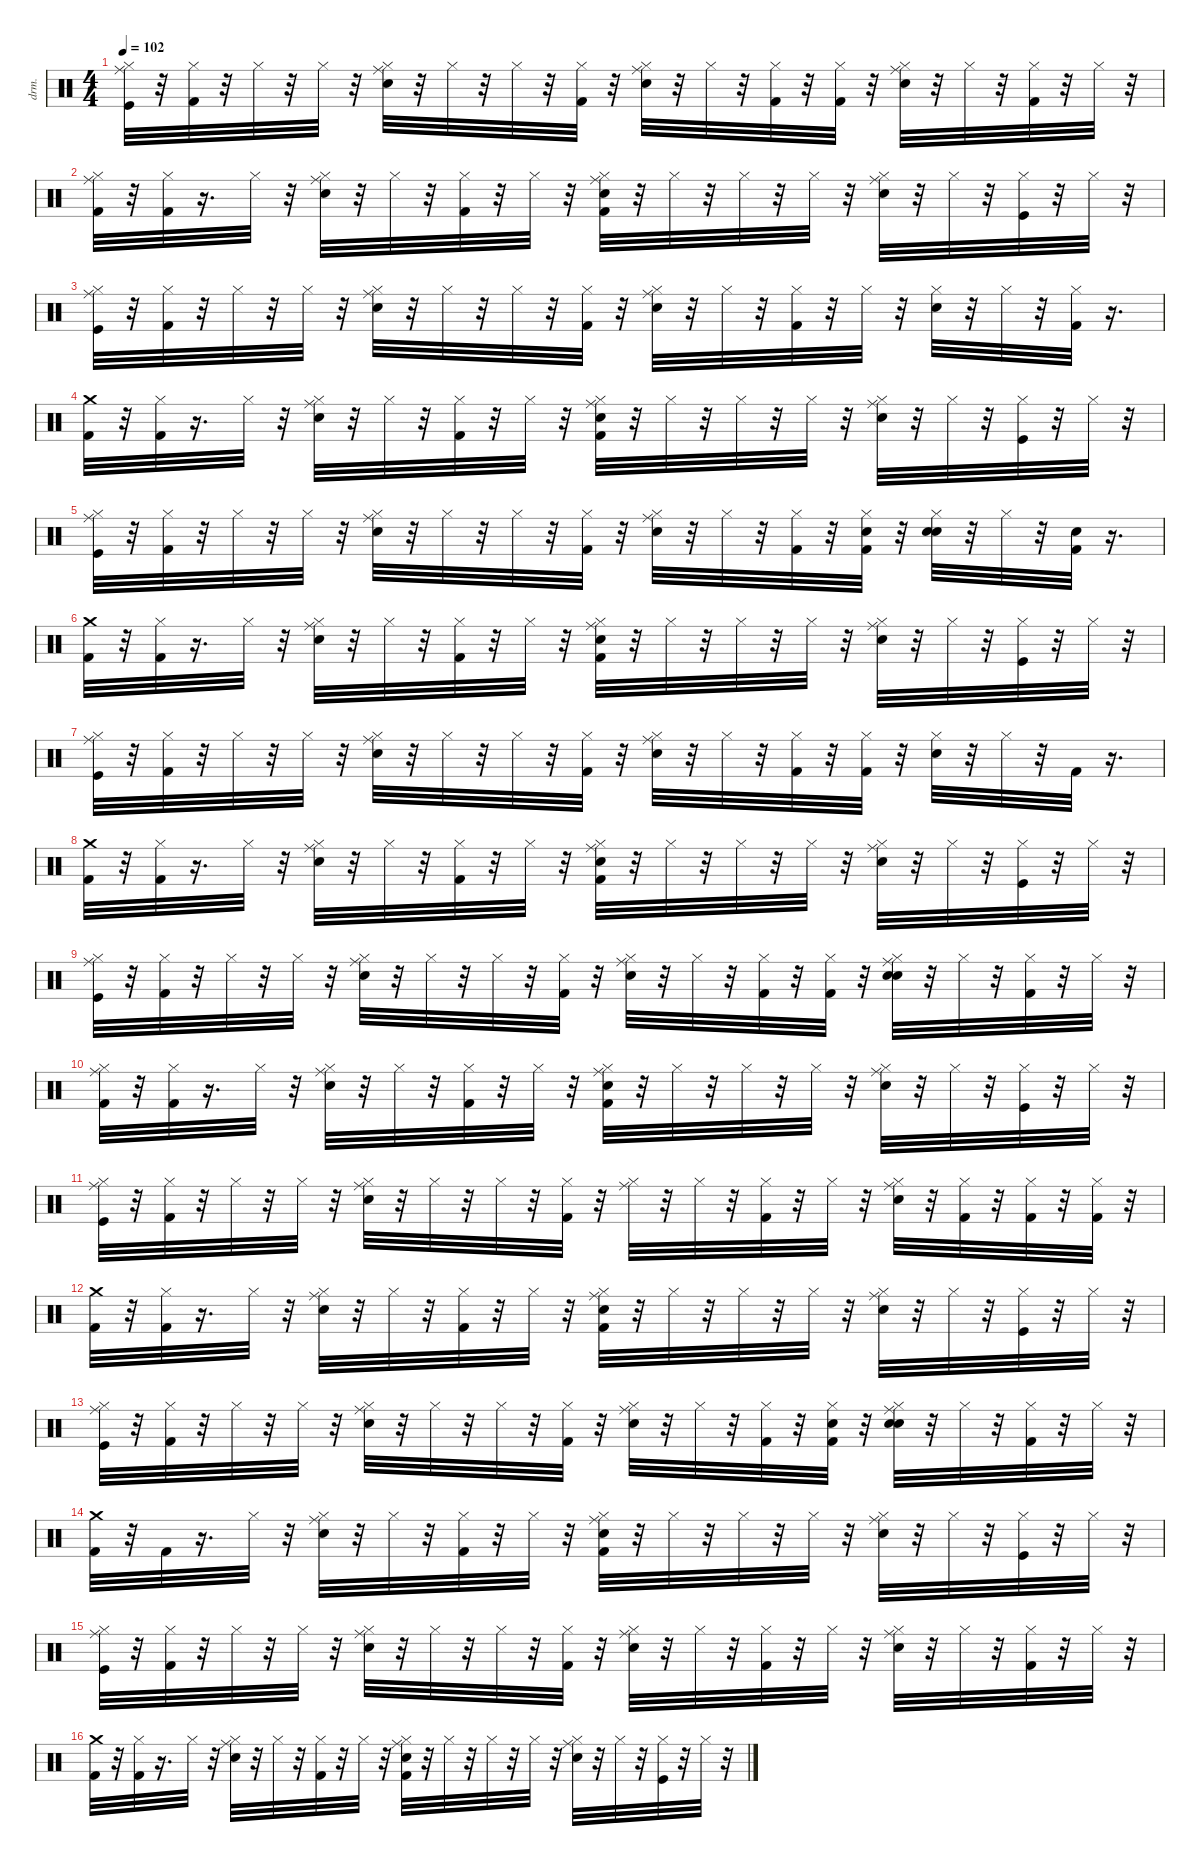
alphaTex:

\defaultSystemsLayout 4
\hideDynamics
\bracketExtendMode nobrackets
\otherSystemsTrackNameOrientation horizontal
\track ("Nick Mason / Gary Wallis" "drm.") {instrument percussion}
\staff {score}
\articulation defaults
\ts (4 4)
\tempo 102
\clef neutral
\ks c
("Kick (hit)" "Hi-Hat (closed)" "Ride (middle)").32{dy fff beam Down} r.32{beam Down} ("Hi-Hat (closed)" "Kick (hit) 2").32{dy pp beam Down} r.32{beam Down} "Hi-Hat (closed)".32{dy ppp beam Down} r.32{beam Down} "Hi-Hat (closed)".32{dy p beam Down} r.32{beam Down} ("Snare (hit) 2" "Hi-Hat (closed)" "Ride (middle)").32{beam Down} r.32{beam Down} "Hi-Hat (closed)".32{dy ppp beam Down} r.32{beam Down} "Hi-Hat (closed)".32{dy mp beam Down} r.32{beam Down} ("Hi-Hat (closed)" "Kick (hit) 2").32{dy ppp beam Down} r.32{beam Down} ("Snare (hit) 2" "Hi-Hat (closed)" "Ride (middle)").32{dy ff beam Down} r.32{beam Down} "Hi-Hat (closed)".32{dy pp beam Down} r.32{beam Down} ("Hi-Hat (closed)" "Kick (hit) 2").32{dy ppp beam Down} r.32{beam Down} ("Hi-Hat (closed)" "Kick (hit) 2").32{dy p beam Down} r.32{beam Down} ("Snare (hit) 2" "Hi-Hat (closed)" "Ride (middle)").32{beam Down} r.32{beam Down} "Hi-Hat (closed)".32{dy ppp beam Down} r.32{beam Down} ("Kick (hit) 2" "Hi-Hat (closed)").32{dy f beam Down} r.32{beam Down} "Hi-Hat (closed)".32{dy p beam Down} r.32{beam Down} |
("Kick (hit) 2" "Hi-Hat (closed)" "Ride (middle)").32{dy ff beam Down} r.32{beam Down} ("Hi-Hat (closed)" "Kick (hit) 2").32{dy mp beam Down} r.16{d beam Down} "Hi-Hat (closed)".32{dy pp beam Down} r.32{beam Down} ("Snare (hit) 2" "Hi-Hat (closed)" "Ride (middle)").32{dy p beam Down} r.32{beam Down} "Hi-Hat (closed)".32{dy pp beam Down} r.32{beam Down} ("Kick (hit) 2" "Hi-Hat (closed)").32{dy ff beam Down} r.32{beam Down} "Hi-Hat (closed)".32{dy ppp beam Down} r.32{beam Down} ("Kick (hit) 2" "Snare (hit) 2" "Hi-Hat (closed)" "Ride (middle)").32{dy f beam Down} r.32{beam Down} "Hi-Hat (closed)".32{dy ppp beam Down} r.32{beam Down} "Hi-Hat (closed)".32{dy pp beam Down} r.32{beam Down} "Hi-Hat (closed)".32{beam Down} r.32{beam Down} ("Snare (hit) 2" "Hi-Hat (closed)" "Ride (middle)").32{dy p beam Down} r.32{beam Down} "Hi-Hat (closed)".32{dy ppp beam Down} r.32{beam Down} ("Kick (hit)" "Hi-Hat (closed)").32{dy f beam Down} r.32{beam Down} "Hi-Hat (closed)".32{dy mp beam Down} r.32{beam Down} |
("Kick (hit)" "Hi-Hat (closed)" "Ride (middle)").32{dy fff beam Down} r.32{beam Down} ("Hi-Hat (closed)" "Kick (hit) 2").32{dy pp beam Down} r.32{beam Down} "Hi-Hat (closed)".32{dy ppp beam Down} r.32{beam Down} "Hi-Hat (closed)".32{dy p beam Down} r.32{beam Down} ("Snare (hit) 2" "Hi-Hat (closed)" "Ride (middle)").32{beam Down} r.32{beam Down} "Hi-Hat (closed)".32{dy ppp beam Down} r.32{beam Down} "Hi-Hat (closed)".32{dy mp beam Down} r.32{beam Down} ("Hi-Hat (closed)" "Kick (hit) 2").32{dy ppp beam Down} r.32{beam Down} ("Snare (hit) 2" "Hi-Hat (closed)" "Ride (middle)").32{dy ff beam Down} r.32{beam Down} "Hi-Hat (closed)".32{dy pp beam Down} r.32{beam Down} ("Hi-Hat (closed)" "Kick (hit) 2").32{dy ppp beam Down} r.32{beam Down} "Hi-Hat (closed)".32{dy p beam Down} r.32{beam Down} ("Snare (hit) 2" "Hi-Hat (closed)").32{beam Down} r.32{beam Down} "Hi-Hat (closed)".32{dy ppp beam Down} r.32{beam Down} ("Kick (hit) 2" "Hi-Hat (closed)").32{dy f beam Down} r.16{d beam Down} |
("Kick (hit) 2" "Crash medium (hit)").32{dy ff beam Down} r.32{beam Down} ("Hi-Hat (closed)" "Kick (hit) 2").32{dy mp beam Down} r.16{d beam Down} "Hi-Hat (closed)".32{dy pp beam Down} r.32{beam Down} ("Snare (hit) 2" "Hi-Hat (closed)" "Ride (middle)").32{dy p beam Down} r.32{beam Down} "Hi-Hat (closed)".32{dy pp beam Down} r.32{beam Down} ("Kick (hit) 2" "Hi-Hat (closed)").32{dy f beam Down} r.32{beam Down} "Hi-Hat (closed)".32{dy ppp beam Down} r.32{beam Down} ("Kick (hit) 2" "Snare (hit) 2" "Hi-Hat (closed)" "Ride (middle)").32{dy f beam Down} r.32{beam Down} "Hi-Hat (closed)".32{dy ppp beam Down} r.32{beam Down} "Hi-Hat (closed)".32{dy pp beam Down} r.32{beam Down} "Hi-Hat (closed)".32{beam Down} r.32{beam Down} ("Snare (hit) 2" "Hi-Hat (closed)" "Ride (middle)").32{dy p beam Down} r.32{beam Down} "Hi-Hat (closed)".32{dy ppp beam Down} r.32{beam Down} ("Kick (hit)" "Hi-Hat (closed)").32{dy f beam Down} r.32{beam Down} "Hi-Hat (closed)".32{dy mp beam Down} r.32{beam Down} |
("Kick (hit)" "Hi-Hat (closed)" "Ride (middle)").32{dy fff beam Down} r.32{beam Down} ("Hi-Hat (closed)" "Kick (hit) 2").32{dy pp beam Down} r.32{beam Down} "Hi-Hat (closed)".32{dy ppp beam Down} r.32{beam Down} "Hi-Hat (closed)".32{dy p beam Down} r.32{beam Down} ("Snare (hit) 2" "Hi-Hat (closed)" "Ride (middle)").32{beam Down} r.32{beam Down} "Hi-Hat (closed)".32{dy ppp beam Down} r.32{beam Down} "Hi-Hat (closed)".32{dy mp beam Down} r.32{beam Down} ("Hi-Hat (closed)" "Kick (hit) 2").32{dy ppp beam Down} r.32{beam Down} ("Snare (hit) 2" "Hi-Hat (closed)" "Ride (middle)").32{dy ff beam Down} r.32{beam Down} "Hi-Hat (closed)".32{dy pp beam Down} r.32{beam Down} ("Hi-Hat (closed)" "Kick (hit) 2").32{dy ppp beam Down} r.32{beam Down} ("Snare (hit) 2" "Hi-Hat (closed)" "Kick (hit) 2").32{dy mp beam Down} r.32{beam Down} ("Snare (hit) 2" "Snare (hit) 2" "Hi-Hat (closed)").32{dy p beam Down} r.32{beam Down} "Hi-Hat (closed)".32{dy ppp beam Down} r.32{beam Down} ("Kick (hit) 2" "Snare (hit) 2").32{dy f beam Down} r.16{d beam Down} |
("Kick (hit) 2" "Crash medium (hit)").32{dy ff beam Down} r.32{beam Down} ("Hi-Hat (closed)" "Kick (hit) 2").32{dy mp beam Down} r.16{d beam Down} "Hi-Hat (closed)".32{dy pp beam Down} r.32{beam Down} ("Snare (hit) 2" "Hi-Hat (closed)" "Ride (middle)").32{dy p beam Down} r.32{beam Down} "Hi-Hat (closed)".32{dy pp beam Down} r.32{beam Down} ("Kick (hit) 2" "Hi-Hat (closed)").32{dy ff beam Down} r.32{beam Down} "Hi-Hat (closed)".32{dy ppp beam Down} r.32{beam Down} ("Kick (hit) 2" "Snare (hit) 2" "Hi-Hat (closed)" "Ride (middle)").32{dy f beam Down} r.32{beam Down} "Hi-Hat (closed)".32{dy ppp beam Down} r.32{beam Down} "Hi-Hat (closed)".32{dy pp beam Down} r.32{beam Down} "Hi-Hat (closed)".32{beam Down} r.32{beam Down} ("Snare (hit) 2" "Hi-Hat (closed)" "Ride (middle)").32{dy p beam Down} r.32{beam Down} "Hi-Hat (closed)".32{dy ppp beam Down} r.32{beam Down} ("Kick (hit)" "Hi-Hat (closed)").32{dy f beam Down} r.32{beam Down} "Hi-Hat (closed)".32{dy mp beam Down} r.32{beam Down} |
("Kick (hit)" "Hi-Hat (closed)" "Ride (middle)").32{dy fff beam Down} r.32{beam Down} ("Hi-Hat (closed)" "Kick (hit) 2").32{dy pp beam Down} r.32{beam Down} "Hi-Hat (closed)".32{dy ppp beam Down} r.32{beam Down} "Hi-Hat (closed)".32{dy p beam Down} r.32{beam Down} ("Snare (hit) 2" "Hi-Hat (closed)" "Ride (middle)").32{beam Down} r.32{beam Down} "Hi-Hat (closed)".32{dy ppp beam Down} r.32{beam Down} "Hi-Hat (closed)".32{dy mp beam Down} r.32{beam Down} ("Hi-Hat (closed)" "Kick (hit) 2").32{dy ppp beam Down} r.32{beam Down} ("Snare (hit) 2" "Hi-Hat (closed)" "Ride (middle)").32{dy ff beam Down} r.32{beam Down} "Hi-Hat (closed)".32{dy pp beam Down} r.32{beam Down} ("Hi-Hat (closed)" "Kick (hit) 2").32{dy ppp beam Down} r.32{beam Down} ("Hi-Hat (closed)" "Kick (hit) 2").32{dy p beam Down} r.32{beam Down} ("Snare (hit) 2" "Hi-Hat (closed)").32{beam Down} r.32{beam Down} "Hi-Hat (closed)".32{dy ppp beam Down} r.32{beam Down} "Kick (hit) 2".32{dy f beam Down} r.16{d beam Down} |
("Kick (hit) 2" "Crash medium (hit)").32{dy ff beam Down} r.32{beam Down} ("Hi-Hat (closed)" "Kick (hit) 2").32{dy mp beam Down} r.16{d beam Down} "Hi-Hat (closed)".32{dy pp beam Down} r.32{beam Down} ("Snare (hit) 2" "Hi-Hat (closed)" "Ride (middle)").32{dy p beam Down} r.32{beam Down} "Hi-Hat (closed)".32{dy pp beam Down} r.32{beam Down} ("Kick (hit) 2" "Hi-Hat (closed)").32{dy f beam Down} r.32{beam Down} "Hi-Hat (closed)".32{dy ppp beam Down} r.32{beam Down} ("Kick (hit) 2" "Snare (hit) 2" "Hi-Hat (closed)" "Ride (middle)").32{dy f beam Down} r.32{beam Down} "Hi-Hat (closed)".32{dy ppp beam Down} r.32{beam Down} "Hi-Hat (closed)".32{dy pp beam Down} r.32{beam Down} "Hi-Hat (closed)".32{beam Down} r.32{beam Down} ("Snare (hit) 2" "Hi-Hat (closed)" "Ride (middle)").32{dy p beam Down} r.32{beam Down} "Hi-Hat (closed)".32{dy ppp beam Down} r.32{beam Down} ("Kick (hit)" "Hi-Hat (closed)").32{dy f beam Down} r.32{beam Down} "Hi-Hat (closed)".32{dy mp beam Down} r.32{beam Down} |
("Kick (hit)" "Hi-Hat (closed)" "Ride (middle)").32{dy fff beam Down} r.32{beam Down} ("Hi-Hat (closed)" "Kick (hit) 2").32{dy pp beam Down} r.32{beam Down} "Hi-Hat (closed)".32{dy ppp beam Down} r.32{beam Down} "Hi-Hat (closed)".32{dy p beam Down} r.32{beam Down} ("Snare (hit) 2" "Hi-Hat (closed)" "Ride (middle)").32{beam Down} r.32{beam Down} "Hi-Hat (closed)".32{dy ppp beam Down} r.32{beam Down} "Hi-Hat (closed)".32{dy mp beam Down} r.32{beam Down} ("Hi-Hat (closed)" "Kick (hit) 2").32{dy ppp beam Down} r.32{beam Down} ("Snare (hit) 2" "Hi-Hat (closed)" "Ride (middle)").32{dy ff beam Down} r.32{beam Down} "Hi-Hat (closed)".32{dy pp beam Down} r.32{beam Down} ("Hi-Hat (closed)" "Kick (hit) 2").32{dy ppp beam Down} r.32{beam Down} ("Hi-Hat (closed)" "Kick (hit) 2").32{dy p beam Down} r.32{beam Down} ("Snare (hit) 2" "Snare (hit) 2" "Hi-Hat (closed)" "Ride (middle)").32{beam Down} r.32{beam Down} "Hi-Hat (closed)".32{dy ppp beam Down} r.32{beam Down} ("Kick (hit) 2" "Hi-Hat (closed)").32{dy f beam Down} r.32{beam Down} "Hi-Hat (closed)".32{dy p beam Down} r.32{beam Down} |
("Kick (hit) 2" "Hi-Hat (closed)" "Ride (middle)").32{dy ff beam Down} r.32{beam Down} ("Hi-Hat (closed)" "Kick (hit) 2").32{dy mp beam Down} r.16{d beam Down} "Hi-Hat (closed)".32{dy pp beam Down} r.32{beam Down} ("Snare (hit) 2" "Hi-Hat (closed)" "Ride (middle)").32{dy p beam Down} r.32{beam Down} "Hi-Hat (closed)".32{dy pp beam Down} r.32{beam Down} ("Kick (hit) 2" "Hi-Hat (closed)").32{dy ff beam Down} r.32{beam Down} "Hi-Hat (closed)".32{dy ppp beam Down} r.32{beam Down} ("Kick (hit) 2" "Snare (hit) 2" "Hi-Hat (closed)" "Ride (middle)").32{dy f beam Down} r.32{beam Down} "Hi-Hat (closed)".32{dy ppp beam Down} r.32{beam Down} "Hi-Hat (closed)".32{dy pp beam Down} r.32{beam Down} "Hi-Hat (closed)".32{beam Down} r.32{beam Down} ("Snare (hit) 2" "Hi-Hat (closed)" "Ride (middle)").32{dy p beam Down} r.32{beam Down} "Hi-Hat (closed)".32{dy ppp beam Down} r.32{beam Down} ("Kick (hit)" "Hi-Hat (closed)").32{dy f beam Down} r.32{beam Down} "Hi-Hat (closed)".32{dy mp beam Down} r.32{beam Down} |
("Kick (hit)" "Hi-Hat (closed)" "Ride (middle)").32{dy fff beam Down} r.32{beam Down} ("Hi-Hat (closed)" "Kick (hit) 2").32{dy pp beam Down} r.32{beam Down} "Hi-Hat (closed)".32{dy ppp beam Down} r.32{beam Down} "Hi-Hat (closed)".32{dy p beam Down} r.32{beam Down} ("Snare (hit) 2" "Hi-Hat (closed)" "Ride (middle)").32{beam Down} r.32{beam Down} "Hi-Hat (closed)".32{dy ppp beam Down} r.32{beam Down} "Hi-Hat (closed)".32{dy mp beam Down} r.32{beam Down} ("Hi-Hat (closed)" "Kick (hit) 2").32{dy ppp beam Down} r.32{beam Down} ("Hi-Hat (closed)" "Ride (middle)").32{dy mf beam Down} r.32{beam Down} "Hi-Hat (closed)".32{dy pp beam Down} r.32{beam Down} ("Hi-Hat (closed)" "Kick (hit) 2").32{dy ppp beam Down} r.32{beam Down} "Hi-Hat (closed)".32{dy p beam Down} r.32{beam Down} ("Snare (hit) 2" "Hi-Hat (closed)" "Ride (middle)").32{beam Down} r.32{beam Down} ("Kick (hit) 2" "Hi-Hat (closed)").32{dy f beam Down} r.32{beam Down} ("Kick (hit) 2" "Hi-Hat (closed)").32{beam Down} r.32{beam Down} ("Kick (hit) 2" "Hi-Hat (closed)").32{dy ff beam Down} r.32{beam Down} |
("Kick (hit) 2" "Crash medium (hit)").32{beam Down} r.32{beam Down} ("Hi-Hat (closed)" "Kick (hit) 2").32{dy mp beam Down} r.16{d beam Down} "Hi-Hat (closed)".32{dy pp beam Down} r.32{beam Down} ("Snare (hit) 2" "Hi-Hat (closed)" "Ride (middle)").32{dy p beam Down} r.32{beam Down} "Hi-Hat (closed)".32{dy pp beam Down} r.32{beam Down} ("Kick (hit) 2" "Hi-Hat (closed)").32{dy f beam Down} r.32{beam Down} "Hi-Hat (closed)".32{dy ppp beam Down} r.32{beam Down} ("Kick (hit) 2" "Snare (hit) 2" "Hi-Hat (closed)" "Ride (middle)").32{dy f beam Down} r.32{beam Down} "Hi-Hat (closed)".32{dy ppp beam Down} r.32{beam Down} "Hi-Hat (closed)".32{dy pp beam Down} r.32{beam Down} "Hi-Hat (closed)".32{beam Down} r.32{beam Down} ("Snare (hit) 2" "Hi-Hat (closed)" "Ride (middle)").32{dy p beam Down} r.32{beam Down} "Hi-Hat (closed)".32{dy ppp beam Down} r.32{beam Down} ("Kick (hit)" "Hi-Hat (closed)").32{dy f beam Down} r.32{beam Down} "Hi-Hat (closed)".32{dy mp beam Down} r.32{beam Down} |
("Kick (hit)" "Hi-Hat (closed)" "Ride (middle)").32{dy fff beam Down} r.32{beam Down} ("Hi-Hat (closed)" "Kick (hit) 2").32{dy pp beam Down} r.32{beam Down} "Hi-Hat (closed)".32{dy ppp beam Down} r.32{beam Down} "Hi-Hat (closed)".32{dy p beam Down} r.32{beam Down} ("Snare (hit) 2" "Hi-Hat (closed)" "Ride (middle)").32{beam Down} r.32{beam Down} "Hi-Hat (closed)".32{dy ppp beam Down} r.32{beam Down} "Hi-Hat (closed)".32{dy mp beam Down} r.32{beam Down} ("Hi-Hat (closed)" "Kick (hit) 2").32{dy ppp beam Down} r.32{beam Down} ("Snare (hit) 2" "Hi-Hat (closed)" "Ride (middle)").32{dy ff beam Down} r.32{beam Down} "Hi-Hat (closed)".32{dy pp beam Down} r.32{beam Down} ("Hi-Hat (closed)" "Kick (hit) 2").32{dy ppp beam Down} r.32{beam Down} ("Snare (hit) 2" "Hi-Hat (closed)" "Kick (hit) 2").32{dy mp beam Down} r.32{beam Down} ("Snare (hit) 2" "Snare (hit) 2" "Hi-Hat (closed)" "Ride (middle)").32{dy p beam Down} r.32{beam Down} "Hi-Hat (closed)".32{dy ppp beam Down} r.32{beam Down} ("Kick (hit) 2" "Hi-Hat (closed)").32{dy f beam Down} r.32{beam Down} "Hi-Hat (closed)".32{dy p beam Down} r.32{beam Down} |
("Kick (hit) 2" "Crash medium (hit)").32{dy ff beam Down} r.32{beam Down} "Kick (hit) 2".32{dy mf beam Down} r.16{d beam Down} "Hi-Hat (closed)".32{dy pp beam Down} r.32{beam Down} ("Snare (hit) 2" "Hi-Hat (closed)" "Ride (middle)").32{dy p beam Down} r.32{beam Down} "Hi-Hat (closed)".32{dy pp beam Down} r.32{beam Down} ("Kick (hit) 2" "Hi-Hat (closed)").32{dy ff beam Down} r.32{beam Down} "Hi-Hat (closed)".32{dy ppp beam Down} r.32{beam Down} ("Kick (hit) 2" "Snare (hit) 2" "Hi-Hat (closed)" "Ride (middle)").32{dy f beam Down} r.32{beam Down} "Hi-Hat (closed)".32{dy ppp beam Down} r.32{beam Down} "Hi-Hat (closed)".32{dy pp beam Down} r.32{beam Down} "Hi-Hat (closed)".32{beam Down} r.32{beam Down} ("Snare (hit) 2" "Hi-Hat (closed)" "Ride (middle)").32{dy p beam Down} r.32{beam Down} "Hi-Hat (closed)".32{dy ppp beam Down} r.32{beam Down} ("Kick (hit)" "Hi-Hat (closed)").32{dy f beam Down} r.32{beam Down} "Hi-Hat (closed)".32{dy mp beam Down} r.32{beam Down} |
("Kick (hit)" "Hi-Hat (closed)" "Ride (middle)").32{dy fff beam Down} r.32{beam Down} ("Hi-Hat (closed)" "Kick (hit) 2").32{dy pp beam Down} r.32{beam Down} "Hi-Hat (closed)".32{dy ppp beam Down} r.32{beam Down} "Hi-Hat (closed)".32{dy p beam Down} r.32{beam Down} ("Snare (hit) 2" "Hi-Hat (closed)" "Ride (middle)").32{beam Down} r.32{beam Down} "Hi-Hat (closed)".32{dy ppp beam Down} r.32{beam Down} "Hi-Hat (closed)".32{dy mp beam Down} r.32{beam Down} ("Hi-Hat (closed)" "Kick (hit) 2").32{dy ppp beam Down} r.32{beam Down} ("Snare (hit) 2" "Hi-Hat (closed)" "Ride (middle)").32{dy ff beam Down} r.32{beam Down} "Hi-Hat (closed)".32{dy pp beam Down} r.32{beam Down} ("Hi-Hat (closed)" "Kick (hit) 2").32{dy ppp beam Down} r.32{beam Down} "Hi-Hat (closed)".32{dy p beam Down} r.32{beam Down} ("Snare (hit) 2" "Hi-Hat (closed)" "Ride (middle)").32{beam Down} r.32{beam Down} "Hi-Hat (closed)".32{dy ppp beam Down} r.32{beam Down} ("Kick (hit) 2" "Hi-Hat (closed)").32{dy f beam Down} r.32{beam Down} "Hi-Hat (closed)".32{dy p beam Down} r.32{beam Down} |
("Kick (hit) 2" "Crash medium (hit)").32{dy ff beam Down} r.32{beam Down} ("Hi-Hat (closed)" "Kick (hit) 2").32{dy mp beam Down} r.16{d beam Down} "Hi-Hat (closed)".32{dy pp beam Down} r.32{beam Down} ("Snare (hit) 2" "Hi-Hat (closed)" "Ride (middle)").32{dy p beam Down} r.32{beam Down} "Hi-Hat (closed)".32{dy pp beam Down} r.32{beam Down} ("Kick (hit) 2" "Hi-Hat (closed)").32{dy f beam Down} r.32{beam Down} "Hi-Hat (closed)".32{dy ppp beam Down} r.32{beam Down} ("Kick (hit) 2" "Snare (hit) 2" "Hi-Hat (closed)" "Ride (middle)").32{dy f beam Down} r.32{beam Down} "Hi-Hat (closed)".32{dy ppp beam Down} r.32{beam Down} "Hi-Hat (closed)".32{dy pp beam Down} r.32{beam Down} "Hi-Hat (closed)".32{beam Down} r.32{beam Down} ("Snare (hit) 2" "Hi-Hat (closed)" "Ride (middle)").32{dy p beam Down} r.32{beam Down} "Hi-Hat (closed)".32{dy ppp beam Down} r.32{beam Down} ("Kick (hit)" "Hi-Hat (closed)").32{dy f beam Down} r.32{beam Down} "Hi-Hat (closed)".32{dy mp beam Down} r.32{beam Down}
